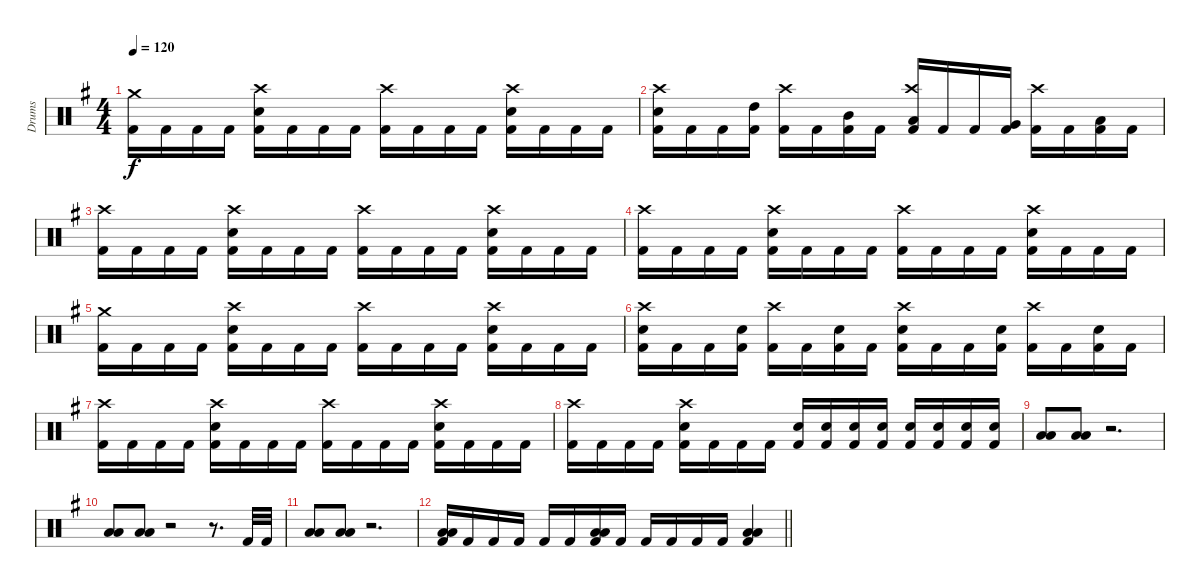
\track ("Drums" "Drums") {instrument percussion}
\staff {score}
\articulation defaults
\ts (4 4)
\tempo 120
\clef neutral
\ks eminor
("Kick (hit) 2" "Crash medium (hit)").16{dy f} "Kick (hit) 2".16 "Kick (hit) 2".16 "Kick (hit) 2".16 ("Kick (hit) 2" "Electric Snare (hit)" "Crash high (hit)").16 "Kick (hit) 2".16 "Kick (hit) 2".16 "Kick (hit) 2".16 ("Kick (hit) 2" "Crash high (hit)").16 "Kick (hit) 2".16 "Kick (hit) 2".16 "Kick (hit) 2".16 ("Kick (hit) 2" "Crash high (hit)" "Electric Snare (hit)").16 "Kick (hit) 2".16 "Kick (hit) 2".16 "Kick (hit) 2".16 |
("Kick (hit) 2" "Crash high (hit)" "Electric Snare (hit)").16 "Kick (hit) 2".16 "Kick (hit) 2".16 ("Kick (hit) 2" "High Tom (hit)").16 ("Kick (hit) 2" "Crash high (hit)").16 "Kick (hit) 2".16 ("Kick (hit) 2" "Mid Tom (hit)").16 "Kick (hit) 2".16 ("Kick (hit) 2" "Crash high (hit)" "Low Tom (hit)").16 "Kick (hit) 2".16 "Kick (hit) 2".16 ("Kick (hit) 2" "Very Low Tom (hit)").16 ("Kick (hit) 2" "Crash high (hit)").16 "Kick (hit) 2".16 ("Kick (hit) 2" "Low Floor Tom (hit)").16 "Kick (hit) 2".16 |
("Kick (hit) 2" "Crash high (hit)").16 "Kick (hit) 2".16 "Kick (hit) 2".16 "Kick (hit) 2".16 ("Kick (hit) 2" "Electric Snare (hit)" "Crash high (hit)").16 "Kick (hit) 2".16 "Kick (hit) 2".16 "Kick (hit) 2".16 ("Kick (hit) 2" "Crash high (hit)").16 "Kick (hit) 2".16 "Kick (hit) 2".16 "Kick (hit) 2".16 ("Kick (hit) 2" "Crash high (hit)" "Electric Snare (hit)").16 "Kick (hit) 2".16 "Kick (hit) 2".16 "Kick (hit) 2".16 |
("Kick (hit) 2" "Crash high (hit)").16 "Kick (hit) 2".16 "Kick (hit) 2".16 "Kick (hit) 2".16 ("Kick (hit) 2" "Electric Snare (hit)" "Crash high (hit)").16 "Kick (hit) 2".16 "Kick (hit) 2".16 "Kick (hit) 2".16 ("Kick (hit) 2" "Crash high (hit)").16 "Kick (hit) 2".16 "Kick (hit) 2".16 "Kick (hit) 2".16 ("Kick (hit) 2" "Crash high (hit)" "Electric Snare (hit)").16 "Kick (hit) 2".16 "Kick (hit) 2".16 "Kick (hit) 2".16 |
("Kick (hit) 2" "Crash medium (hit)").16 "Kick (hit) 2".16 "Kick (hit) 2".16 "Kick (hit) 2".16 ("Kick (hit) 2" "Electric Snare (hit)" "Crash high (hit)").16 "Kick (hit) 2".16 "Kick (hit) 2".16 "Kick (hit) 2".16 ("Kick (hit) 2" "Crash high (hit)").16 "Kick (hit) 2".16 "Kick (hit) 2".16 "Kick (hit) 2".16 ("Kick (hit) 2" "Crash high (hit)" "Electric Snare (hit)").16 "Kick (hit) 2".16 "Kick (hit) 2".16 "Kick (hit) 2".16 |
("Kick (hit) 2" "Crash high (hit)" "Electric Snare (hit)").16 "Kick (hit) 2".16 "Kick (hit) 2".16 ("Kick (hit) 2" "Electric Snare (hit)").16 ("Kick (hit) 2" "Crash high (hit)").16 "Kick (hit) 2".16 ("Kick (hit) 2" "Electric Snare (hit)").16 "Kick (hit) 2".16 ("Kick (hit) 2" "Crash high (hit)" "Electric Snare (hit)").16 "Kick (hit) 2".16 "Kick (hit) 2".16 ("Kick (hit) 2" "Electric Snare (hit)").16 ("Kick (hit) 2" "Crash high (hit)").16 "Kick (hit) 2".16 ("Kick (hit) 2" "Electric Snare (hit)").16 "Kick (hit) 2".16 |
("Kick (hit) 2" "Crash high (hit)").16 "Kick (hit) 2".16 "Kick (hit) 2".16 "Kick (hit) 2".16 ("Kick (hit) 2" "Electric Snare (hit)" "Crash high (hit)").16 "Kick (hit) 2".16 "Kick (hit) 2".16 "Kick (hit) 2".16 ("Kick (hit) 2" "Crash high (hit)").16 "Kick (hit) 2".16 "Kick (hit) 2".16 "Kick (hit) 2".16 ("Kick (hit) 2" "Crash high (hit)" "Electric Snare (hit)").16 "Kick (hit) 2".16 "Kick (hit) 2".16 "Kick (hit) 2".16 |
("Kick (hit) 2" "Crash high (hit)").16 "Kick (hit) 2".16 "Kick (hit) 2".16 "Kick (hit) 2".16 ("Kick (hit) 2" "Electric Snare (hit)" "Crash high (hit)").16 "Kick (hit) 2".16 "Kick (hit) 2".16 "Kick (hit) 2".16 ("Kick (hit) 2" "Electric Snare (hit)").16 ("Kick (hit) 2" "Electric Snare (hit)").16 ("Kick (hit) 2" "Electric Snare (hit)").16 ("Kick (hit) 2" "Electric Snare (hit)").16 ("Kick (hit) 2" "Electric Snare (hit)").16 ("Kick (hit) 2" "Electric Snare (hit)").16 ("Kick (hit) 2" "Electric Snare (hit)").16 ("Kick (hit) 2" "Electric Snare (hit)").16 |
("Low Tom (hit)" "Low Floor Tom (hit)").8 ("Low Tom (hit)" "Low Floor Tom (hit)").8 r.2{d} |
("Low Tom (hit)" "Low Floor Tom (hit)").8 ("Low Tom (hit)" "Low Floor Tom (hit)").8 r.2 r.8{d} "Kick (hit) 2".32 "Kick (hit) 2".32 |
("Low Tom (hit)" "Low Floor Tom (hit)").8 ("Low Tom (hit)" "Low Floor Tom (hit)").8 r.2{d} |
\barLineRight lightlight
("Kick (hit) 2" "Low Tom (hit)" "Low Floor Tom (hit)").16 "Kick (hit) 2".16 "Kick (hit) 2".16 "Kick (hit) 2".16 "Kick (hit) 2".16 "Kick (hit) 2".16 ("Kick (hit) 2" "Low Tom (hit)" "Low Floor Tom (hit)").16 "Kick (hit) 2".16 "Kick (hit) 2".16 "Kick (hit) 2".16 "Kick (hit) 2".16 "Kick (hit) 2".16 ("Low Tom (hit)" "Low Floor Tom (hit)" "Kick (hit) 2").4
